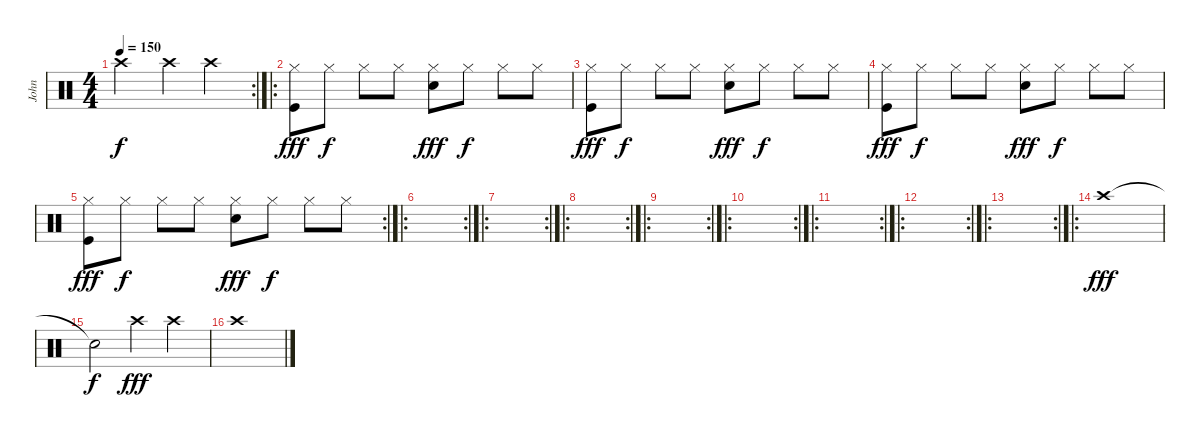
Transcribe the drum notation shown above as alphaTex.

\track ("John" "John") {instrument percussion}
\staff {score}
\articulation defaults
\rc 2
\ts (4 4)
\tempo 150
\clef neutral
\ks c "Crash high (hit)"{t}.2{dy f} "Crash high (hit)".4 "Crash high (hit)".4
|
\ro
("Hi-Hat (closed)" "Kick (hit)").8{dy fff} "Hi-Hat (closed)".8{dy f} "Hi-Hat (closed)".8 "Hi-Hat (closed)".8 ("Hi-Hat (closed)" "Snare (hit) 2").8{dy fff} "Hi-Hat (closed)".8{dy f} "Hi-Hat (closed)".8 "Hi-Hat (closed)".8 |
("Hi-Hat (closed)" "Kick (hit)").8{dy fff} "Hi-Hat (closed)".8{dy f} "Hi-Hat (closed)".8 "Hi-Hat (closed)".8 ("Hi-Hat (closed)" "Snare (hit) 2").8{dy fff} "Hi-Hat (closed)".8{dy f} "Hi-Hat (closed)".8 "Hi-Hat (closed)".8 |
("Hi-Hat (closed)" "Kick (hit)").8{dy fff} "Hi-Hat (closed)".8{dy f} "Hi-Hat (closed)".8 "Hi-Hat (closed)".8 ("Hi-Hat (closed)" "Snare (hit) 2").8{dy fff} "Hi-Hat (closed)".8{dy f} "Hi-Hat (closed)".8 "Hi-Hat (closed)".8 |
\rc 2
("Hi-Hat (closed)" "Kick (hit)").8{dy fff} "Hi-Hat (closed)".8{dy f} "Hi-Hat (closed)".8 "Hi-Hat (closed)".8 ("Hi-Hat (closed)" "Snare (hit) 2").8{dy fff} "Hi-Hat (closed)".8{dy f} "Hi-Hat (closed)".8 "Hi-Hat (closed)".8 |
\ro
\rc 2
|
\ro
\rc 2
|
\ro
\rc 2
|
\ro
\rc 2
|
\ro
\rc 2
|
\ro
\rc 2
|
\ro
\rc 2
|
\ro
\rc 2
|
\ro "Crash high (hit)".1{dy fff}
|
"Snare (hit)"{t}.2{dy f} "Crash high (hit)".4{dy fff} "Crash high (hit)".4 |
"Crash high (hit)".1
